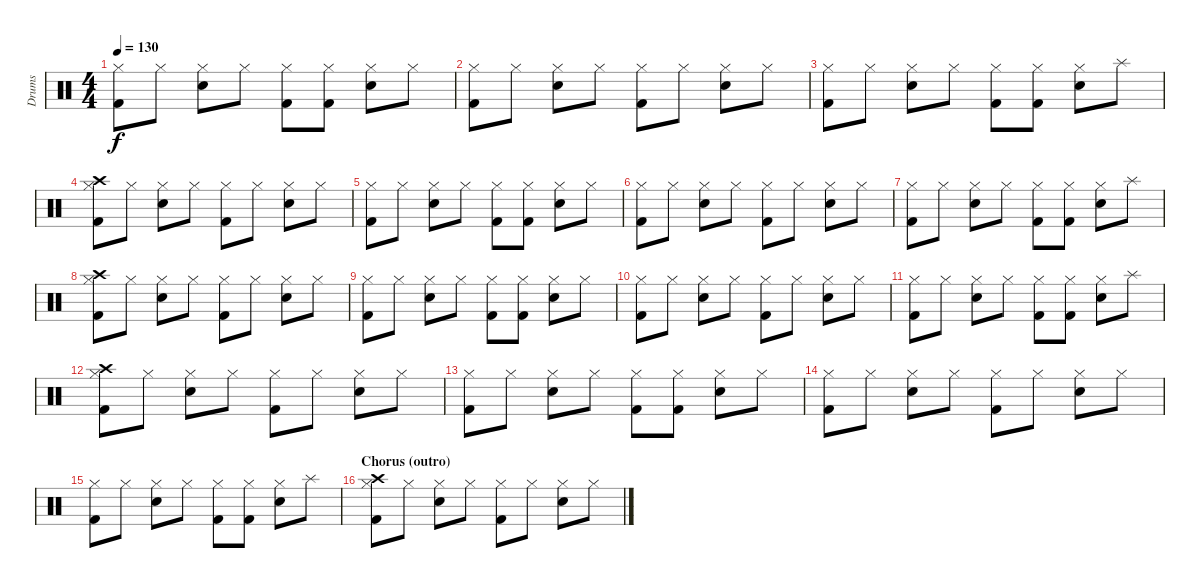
\track ("Drums" "Drums") {instrument percussion}
\staff {score}
\articulation defaults
\ts (4 4)
\tempo 130
\clef neutral
\ks c
("Hi-Hat (closed)" "Kick (hit) 2").8{dy f} "Hi-Hat (closed)".8 ("Hi-Hat (closed)" "Electric Snare (hit)").8 "Hi-Hat (closed)".8 ("Hi-Hat (closed)" "Kick (hit) 2").8 ("Hi-Hat (closed)" "Kick (hit) 2").8 ("Hi-Hat (closed)" "Electric Snare (hit)").8 "Hi-Hat (closed)".8 |
("Hi-Hat (closed)" "Kick (hit) 2").8 "Hi-Hat (closed)".8 ("Hi-Hat (closed)" "Electric Snare (hit)").8 "Hi-Hat (closed)".8 ("Hi-Hat (closed)" "Kick (hit) 2").8 "Hi-Hat (closed)".8 ("Hi-Hat (closed)" "Electric Snare (hit)").8 "Hi-Hat (closed)".8 |
("Hi-Hat (closed)" "Kick (hit) 2").8 "Hi-Hat (closed)".8 ("Hi-Hat (closed)" "Electric Snare (hit)").8 "Hi-Hat (closed)".8 ("Hi-Hat (closed)" "Kick (hit) 2").8 ("Hi-Hat (closed)" "Kick (hit) 2").8 ("Hi-Hat (closed)" "Electric Snare (hit)").8 "Splash (hit)".8 |
("Crash high (hit)" "Hi-Hat (closed)" "Kick (hit) 2").8 "Hi-Hat (closed)".8 ("Hi-Hat (closed)" "Electric Snare (hit)").8 "Hi-Hat (closed)".8 ("Hi-Hat (closed)" "Kick (hit) 2").8 "Hi-Hat (closed)".8 ("Hi-Hat (closed)" "Electric Snare (hit)").8 "Hi-Hat (closed)".8 |
("Hi-Hat (closed)" "Kick (hit) 2").8 "Hi-Hat (closed)".8 ("Hi-Hat (closed)" "Electric Snare (hit)").8 "Hi-Hat (closed)".8 ("Hi-Hat (closed)" "Kick (hit) 2").8 ("Hi-Hat (closed)" "Kick (hit) 2").8 ("Hi-Hat (closed)" "Electric Snare (hit)").8 "Hi-Hat (closed)".8 |
("Hi-Hat (closed)" "Kick (hit) 2").8 "Hi-Hat (closed)".8 ("Hi-Hat (closed)" "Electric Snare (hit)").8 "Hi-Hat (closed)".8 ("Hi-Hat (closed)" "Kick (hit) 2").8 "Hi-Hat (closed)".8 ("Hi-Hat (closed)" "Electric Snare (hit)").8 "Hi-Hat (closed)".8 |
("Hi-Hat (closed)" "Kick (hit) 2").8 "Hi-Hat (closed)".8 ("Hi-Hat (closed)" "Electric Snare (hit)").8 "Hi-Hat (closed)".8 ("Hi-Hat (closed)" "Kick (hit) 2").8 ("Hi-Hat (closed)" "Kick (hit) 2").8 ("Hi-Hat (closed)" "Electric Snare (hit)").8 "Splash (hit)".8 |
("Crash high (hit)" "Hi-Hat (closed)" "Kick (hit) 2").8 "Hi-Hat (closed)".8 ("Hi-Hat (closed)" "Electric Snare (hit)").8 "Hi-Hat (closed)".8 ("Hi-Hat (closed)" "Kick (hit) 2").8 "Hi-Hat (closed)".8 ("Hi-Hat (closed)" "Electric Snare (hit)").8 "Hi-Hat (closed)".8 |
("Hi-Hat (closed)" "Kick (hit) 2").8 "Hi-Hat (closed)".8 ("Hi-Hat (closed)" "Electric Snare (hit)").8 "Hi-Hat (closed)".8 ("Hi-Hat (closed)" "Kick (hit) 2").8 ("Hi-Hat (closed)" "Kick (hit) 2").8 ("Hi-Hat (closed)" "Electric Snare (hit)").8 "Hi-Hat (closed)".8 |
("Hi-Hat (closed)" "Kick (hit) 2").8 "Hi-Hat (closed)".8 ("Hi-Hat (closed)" "Electric Snare (hit)").8 "Hi-Hat (closed)".8 ("Hi-Hat (closed)" "Kick (hit) 2").8 "Hi-Hat (closed)".8 ("Hi-Hat (closed)" "Electric Snare (hit)").8 "Hi-Hat (closed)".8 |
("Hi-Hat (closed)" "Kick (hit) 2").8 "Hi-Hat (closed)".8 ("Hi-Hat (closed)" "Electric Snare (hit)").8 "Hi-Hat (closed)".8 ("Hi-Hat (closed)" "Kick (hit) 2").8 ("Hi-Hat (closed)" "Kick (hit) 2").8 ("Hi-Hat (closed)" "Electric Snare (hit)").8 "Splash (hit)".8 |
("Crash high (hit)" "Hi-Hat (closed)" "Kick (hit) 2").8 "Hi-Hat (closed)".8 ("Hi-Hat (closed)" "Electric Snare (hit)").8 "Hi-Hat (closed)".8 ("Hi-Hat (closed)" "Kick (hit) 2").8 "Hi-Hat (closed)".8 ("Hi-Hat (closed)" "Electric Snare (hit)").8 "Hi-Hat (closed)".8 |
("Hi-Hat (closed)" "Kick (hit) 2").8 "Hi-Hat (closed)".8 ("Hi-Hat (closed)" "Electric Snare (hit)").8 "Hi-Hat (closed)".8 ("Hi-Hat (closed)" "Kick (hit) 2").8 ("Hi-Hat (closed)" "Kick (hit) 2").8 ("Hi-Hat (closed)" "Electric Snare (hit)").8 "Hi-Hat (closed)".8 |
("Hi-Hat (closed)" "Kick (hit) 2").8 "Hi-Hat (closed)".8 ("Hi-Hat (closed)" "Electric Snare (hit)").8 "Hi-Hat (closed)".8 ("Hi-Hat (closed)" "Kick (hit) 2").8 "Hi-Hat (closed)".8 ("Hi-Hat (closed)" "Electric Snare (hit)").8 "Hi-Hat (closed)".8 |
("Hi-Hat (closed)" "Kick (hit) 2").8 "Hi-Hat (closed)".8 ("Hi-Hat (closed)" "Electric Snare (hit)").8 "Hi-Hat (closed)".8 ("Hi-Hat (closed)" "Kick (hit) 2").8 ("Hi-Hat (closed)" "Kick (hit) 2").8 ("Hi-Hat (closed)" "Electric Snare (hit)").8 "Splash (hit)".8 |
\section ("" "Chorus (outro)")
("Crash high (hit)" "Hi-Hat (closed)" "Kick (hit) 2").8 "Hi-Hat (closed)".8 ("Hi-Hat (closed)" "Electric Snare (hit)").8 "Hi-Hat (closed)".8 ("Hi-Hat (closed)" "Kick (hit) 2").8 "Hi-Hat (closed)".8 ("Hi-Hat (closed)" "Electric Snare (hit)").8 "Hi-Hat (closed)".8
